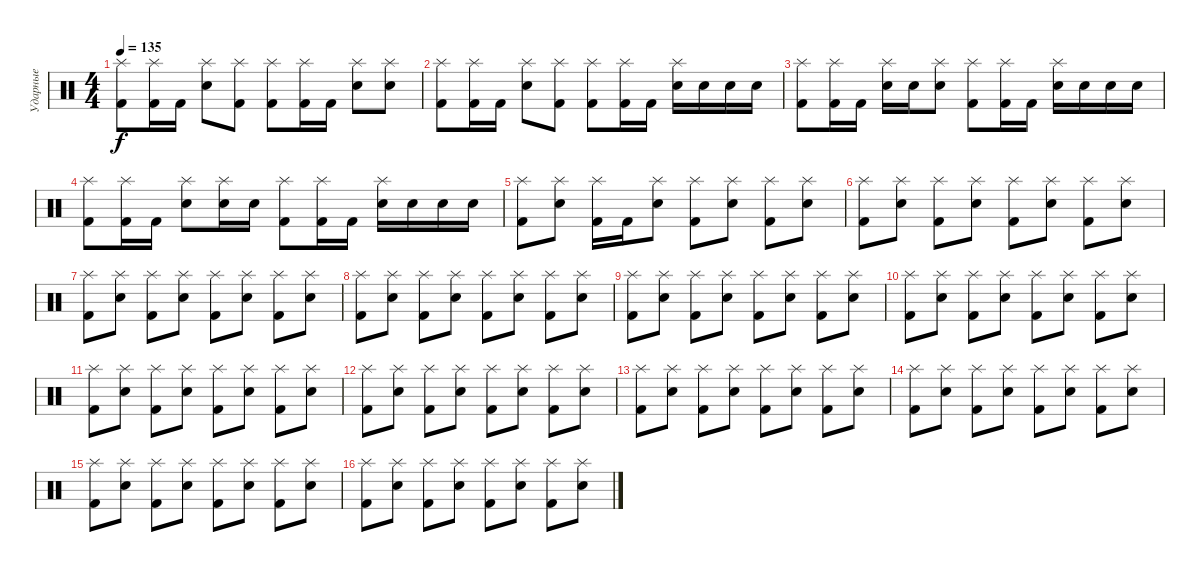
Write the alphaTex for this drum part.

\track ("Ударные" "Ударные") {instrument percussion}
\staff {score}
\articulation defaults
\ts (4 4)
\tempo 135
\clef neutral
\ks c
("Splash (hit)" "Kick (hit) 2").8{dy f} ("Splash (hit)" "Kick (hit) 2").16 "Kick (hit) 2".16 ("Splash (hit)" "Snare (hit) 2").8 ("Splash (hit)" "Kick (hit) 2").8 ("Splash (hit)" "Kick (hit) 2").8 ("Splash (hit)" "Kick (hit) 2").16 "Kick (hit) 2".16 ("Splash (hit)" "Snare (hit) 2").8 ("Splash (hit)" "Snare (hit) 2").8 |
("Splash (hit)" "Kick (hit) 2").8 ("Splash (hit)" "Kick (hit) 2").16 "Kick (hit) 2".16 ("Splash (hit)" "Snare (hit) 2").8 ("Splash (hit)" "Kick (hit) 2").8 ("Splash (hit)" "Kick (hit) 2").8 ("Splash (hit)" "Kick (hit) 2").16 "Kick (hit) 2".16 ("Splash (hit)" "Snare (hit) 2").16 "Snare (hit) 2".16 "Snare (hit) 2".16 "Snare (hit) 2".16 |
("Splash (hit)" "Kick (hit) 2").8 ("Splash (hit)" "Kick (hit) 2").16 "Kick (hit) 2".16 ("Splash (hit)" "Snare (hit) 2").16 "Snare (hit) 2".16 ("Splash (hit)" "Snare (hit) 2").8 ("Splash (hit)" "Kick (hit) 2").8 ("Splash (hit)" "Kick (hit) 2").16 "Kick (hit) 2".16 ("Splash (hit)" "Snare (hit) 2").16 "Snare (hit) 2".16 "Snare (hit) 2".16 "Snare (hit) 2".16 |
("Splash (hit)" "Kick (hit) 2").8 ("Splash (hit)" "Kick (hit) 2").16 "Kick (hit) 2".16 ("Splash (hit)" "Snare (hit) 2").8 ("Splash (hit)" "Snare (hit) 2").16 "Snare (hit) 2".16 ("Splash (hit)" "Kick (hit) 2").8 ("Splash (hit)" "Kick (hit) 2").16 "Kick (hit) 2".16 ("Splash (hit)" "Snare (hit) 2").16 "Snare (hit) 2".16 "Snare (hit) 2".16 "Snare (hit) 2".16 |
("Splash (hit)" "Kick (hit) 2").8 ("Splash (hit)" "Snare (hit) 2").8 ("Splash (hit)" "Kick (hit) 2").16 "Kick (hit) 2".16 ("Splash (hit)" "Snare (hit) 2").8 ("Splash (hit)" "Kick (hit) 2").8 ("Splash (hit)" "Snare (hit) 2").8 ("Splash (hit)" "Kick (hit) 2").8 ("Splash (hit)" "Snare (hit) 2").8 |
("Splash (hit)" "Kick (hit) 2").8 ("Splash (hit)" "Snare (hit) 2").8 ("Splash (hit)" "Kick (hit) 2").8 ("Splash (hit)" "Snare (hit) 2").8 ("Splash (hit)" "Kick (hit) 2").8 ("Splash (hit)" "Snare (hit) 2").8 ("Splash (hit)" "Kick (hit) 2").8 ("Splash (hit)" "Snare (hit) 2").8 |
("Splash (hit)" "Kick (hit) 2").8 ("Splash (hit)" "Snare (hit) 2").8 ("Splash (hit)" "Kick (hit) 2").8 ("Splash (hit)" "Snare (hit) 2").8 ("Splash (hit)" "Kick (hit) 2").8 ("Splash (hit)" "Snare (hit) 2").8 ("Splash (hit)" "Kick (hit) 2").8 ("Splash (hit)" "Snare (hit) 2").8 |
("Splash (hit)" "Kick (hit) 2").8 ("Splash (hit)" "Snare (hit) 2").8 ("Splash (hit)" "Kick (hit) 2").8 ("Splash (hit)" "Snare (hit) 2").8 ("Splash (hit)" "Kick (hit) 2").8 ("Splash (hit)" "Snare (hit) 2").8 ("Splash (hit)" "Kick (hit) 2").8 ("Splash (hit)" "Snare (hit) 2").8 |
("Splash (hit)" "Kick (hit) 2").8 ("Splash (hit)" "Snare (hit) 2").8 ("Splash (hit)" "Kick (hit) 2").8 ("Splash (hit)" "Snare (hit) 2").8 ("Splash (hit)" "Kick (hit) 2").8 ("Splash (hit)" "Snare (hit) 2").8 ("Splash (hit)" "Kick (hit) 2").8 ("Splash (hit)" "Snare (hit) 2").8 |
("Splash (hit)" "Kick (hit) 2").8 ("Splash (hit)" "Snare (hit) 2").8 ("Splash (hit)" "Kick (hit) 2").8 ("Splash (hit)" "Snare (hit) 2").8 ("Splash (hit)" "Kick (hit) 2").8 ("Splash (hit)" "Snare (hit) 2").8 ("Splash (hit)" "Kick (hit) 2").8 ("Splash (hit)" "Snare (hit) 2").8 |
("Splash (hit)" "Kick (hit) 2").8 ("Splash (hit)" "Snare (hit) 2").8 ("Splash (hit)" "Kick (hit) 2").8 ("Splash (hit)" "Snare (hit) 2").8 ("Splash (hit)" "Kick (hit) 2").8 ("Splash (hit)" "Snare (hit) 2").8 ("Splash (hit)" "Kick (hit) 2").8 ("Splash (hit)" "Snare (hit) 2").8 |
("Splash (hit)" "Kick (hit) 2").8 ("Splash (hit)" "Snare (hit) 2").8 ("Splash (hit)" "Kick (hit) 2").8 ("Splash (hit)" "Snare (hit) 2").8 ("Splash (hit)" "Kick (hit) 2").8 ("Splash (hit)" "Snare (hit) 2").8 ("Splash (hit)" "Kick (hit) 2").8 ("Splash (hit)" "Snare (hit) 2").8 |
("Splash (hit)" "Kick (hit) 2").8 ("Splash (hit)" "Snare (hit) 2").8 ("Splash (hit)" "Kick (hit) 2").8 ("Splash (hit)" "Snare (hit) 2").8 ("Splash (hit)" "Kick (hit) 2").8 ("Splash (hit)" "Snare (hit) 2").8 ("Splash (hit)" "Kick (hit) 2").8 ("Splash (hit)" "Snare (hit) 2").8 |
("Splash (hit)" "Kick (hit) 2").8 ("Splash (hit)" "Snare (hit) 2").8 ("Splash (hit)" "Kick (hit) 2").8 ("Splash (hit)" "Snare (hit) 2").8 ("Splash (hit)" "Kick (hit) 2").8 ("Splash (hit)" "Snare (hit) 2").8 ("Splash (hit)" "Kick (hit) 2").8 ("Splash (hit)" "Snare (hit) 2").8 |
("Splash (hit)" "Kick (hit) 2").8 ("Splash (hit)" "Snare (hit) 2").8 ("Splash (hit)" "Kick (hit) 2").8 ("Splash (hit)" "Snare (hit) 2").8 ("Splash (hit)" "Kick (hit) 2").8 ("Splash (hit)" "Snare (hit) 2").8 ("Splash (hit)" "Kick (hit) 2").8 ("Splash (hit)" "Snare (hit) 2").8 |
("Splash (hit)" "Kick (hit) 2").8 ("Splash (hit)" "Snare (hit) 2").8 ("Splash (hit)" "Kick (hit) 2").8 ("Splash (hit)" "Snare (hit) 2").8 ("Splash (hit)" "Kick (hit) 2").8 ("Splash (hit)" "Snare (hit) 2").8 ("Splash (hit)" "Kick (hit) 2").8 ("Splash (hit)" "Snare (hit) 2").8
